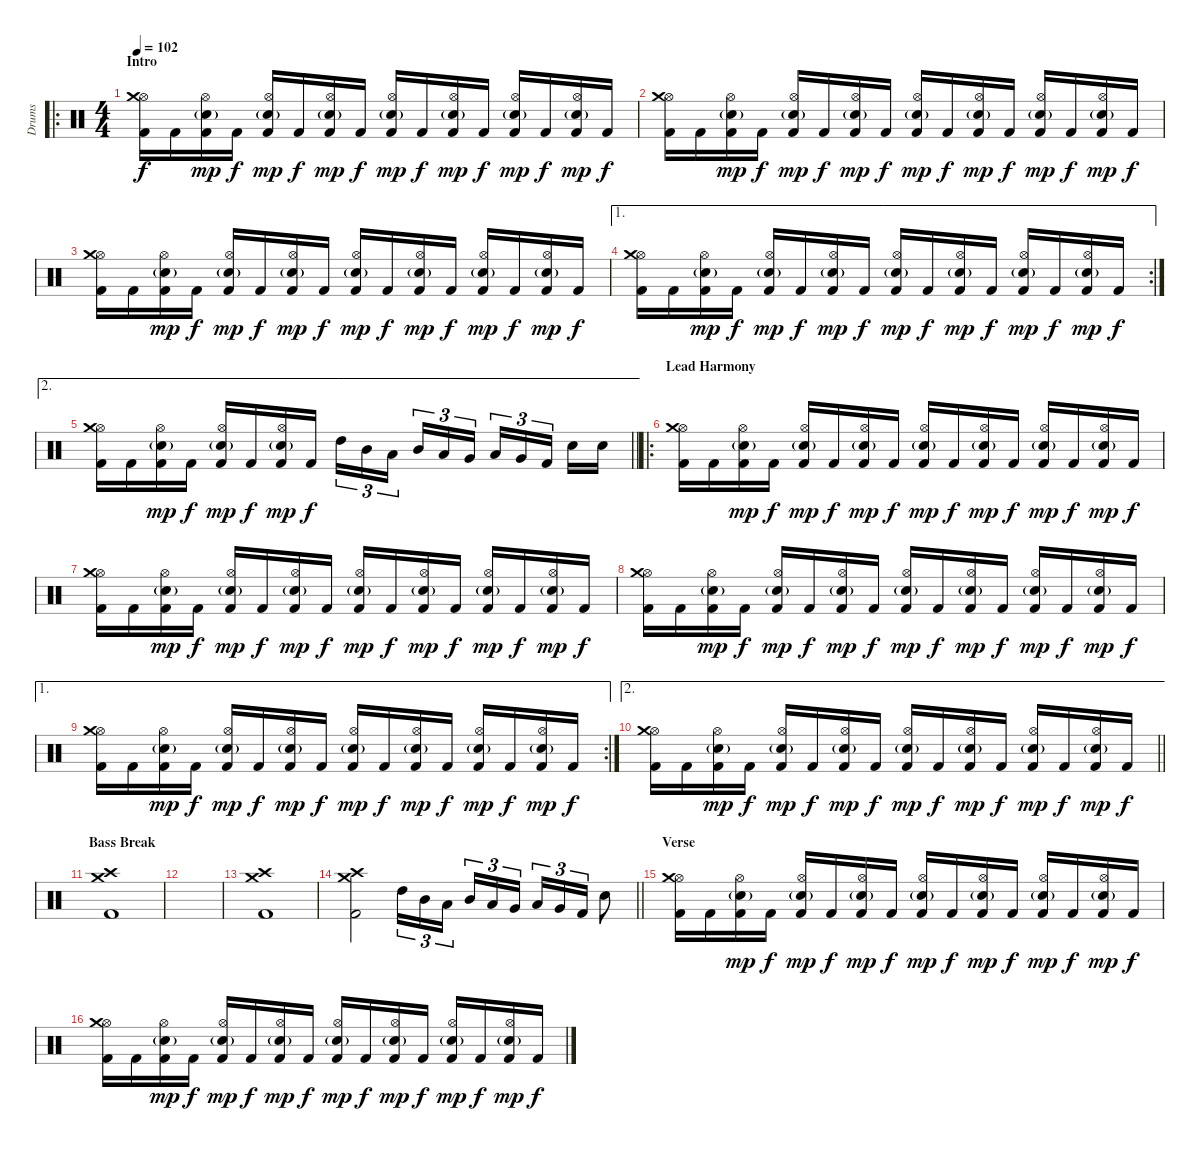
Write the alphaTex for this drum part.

\track ("Drums" "Drums") {instrument percussion}
\staff {score}
\articulation defaults
\ro
\ts (4 4)
\section ("" "Intro")
\tempo 102
\clef neutral
\ks c
("Kick (hit) 2" "Hi-Hat (open)" "Crash medium (hit)").16{dy f} "Kick (hit) 2".16 ("Kick (hit) 2" "Snare (hit) 2"{g} "Hi-Hat (open)").16{dy mp} "Kick (hit) 2".16{dy f} ("Kick (hit) 2" "Snare (hit) 2"{g} "Hi-Hat (open)").16{dy mp} "Kick (hit) 2".16{dy f} ("Kick (hit) 2" "Snare (hit) 2"{g} "Hi-Hat (open)").16{dy mp} "Kick (hit) 2".16{dy f} ("Kick (hit) 2" "Snare (hit) 2"{g} "Hi-Hat (open)").16{dy mp} "Kick (hit) 2".16{dy f} ("Kick (hit) 2" "Snare (hit) 2"{g} "Hi-Hat (open)").16{dy mp} "Kick (hit) 2".16{dy f} ("Kick (hit) 2" "Snare (hit) 2"{g} "Hi-Hat (open)").16{dy mp} "Kick (hit) 2".16{dy f} ("Kick (hit) 2" "Snare (hit) 2"{g} "Hi-Hat (open)").16{dy mp} "Kick (hit) 2".16{dy f} |
("Kick (hit) 2" "Hi-Hat (open)" "Crash medium (hit)").16 "Kick (hit) 2".16 ("Kick (hit) 2" "Snare (hit) 2"{g} "Hi-Hat (open)").16{dy mp} "Kick (hit) 2".16{dy f} ("Kick (hit) 2" "Snare (hit) 2"{g} "Hi-Hat (open)").16{dy mp} "Kick (hit) 2".16{dy f} ("Kick (hit) 2" "Snare (hit) 2"{g} "Hi-Hat (open)").16{dy mp} "Kick (hit) 2".16{dy f} ("Kick (hit) 2" "Snare (hit) 2"{g} "Hi-Hat (open)").16{dy mp} "Kick (hit) 2".16{dy f} ("Kick (hit) 2" "Snare (hit) 2"{g} "Hi-Hat (open)").16{dy mp} "Kick (hit) 2".16{dy f} ("Kick (hit) 2" "Snare (hit) 2"{g} "Hi-Hat (open)").16{dy mp} "Kick (hit) 2".16{dy f} ("Kick (hit) 2" "Snare (hit) 2"{g} "Hi-Hat (open)").16{dy mp} "Kick (hit) 2".16{dy f} |
("Kick (hit) 2" "Hi-Hat (open)" "Crash medium (hit)").16 "Kick (hit) 2".16 ("Kick (hit) 2" "Snare (hit) 2"{g} "Hi-Hat (open)").16{dy mp} "Kick (hit) 2".16{dy f} ("Kick (hit) 2" "Snare (hit) 2"{g} "Hi-Hat (open)").16{dy mp} "Kick (hit) 2".16{dy f} ("Kick (hit) 2" "Snare (hit) 2"{g} "Hi-Hat (open)").16{dy mp} "Kick (hit) 2".16{dy f} ("Kick (hit) 2" "Snare (hit) 2"{g} "Hi-Hat (open)").16{dy mp} "Kick (hit) 2".16{dy f} ("Kick (hit) 2" "Snare (hit) 2"{g} "Hi-Hat (open)").16{dy mp} "Kick (hit) 2".16{dy f} ("Kick (hit) 2" "Snare (hit) 2"{g} "Hi-Hat (open)").16{dy mp} "Kick (hit) 2".16{dy f} ("Kick (hit) 2" "Snare (hit) 2"{g} "Hi-Hat (open)").16{dy mp} "Kick (hit) 2".16{dy f} |
\ae 1
\rc 2
("Kick (hit) 2" "Hi-Hat (open)" "Crash medium (hit)").16 "Kick (hit) 2".16 ("Kick (hit) 2" "Snare (hit) 2"{g} "Hi-Hat (open)").16{dy mp} "Kick (hit) 2".16{dy f} ("Kick (hit) 2" "Snare (hit) 2"{g} "Hi-Hat (open)").16{dy mp} "Kick (hit) 2".16{dy f} ("Kick (hit) 2" "Snare (hit) 2"{g} "Hi-Hat (open)").16{dy mp} "Kick (hit) 2".16{dy f} ("Kick (hit) 2" "Snare (hit) 2"{g} "Hi-Hat (open)").16{dy mp} "Kick (hit) 2".16{dy f} ("Kick (hit) 2" "Snare (hit) 2"{g} "Hi-Hat (open)").16{dy mp} "Kick (hit) 2".16{dy f} ("Kick (hit) 2" "Snare (hit) 2"{g} "Hi-Hat (open)").16{dy mp} "Kick (hit) 2".16{dy f} ("Kick (hit) 2" "Snare (hit) 2"{g} "Hi-Hat (open)").16{dy mp} "Kick (hit) 2".16{dy f} |
\ae 2
\barLineRight lightlight
("Kick (hit) 2" "Hi-Hat (open)" "Crash medium (hit)").16 "Kick (hit) 2".16 ("Kick (hit) 2" "Snare (hit) 2"{g} "Hi-Hat (open)").16{dy mp} "Kick (hit) 2".16{dy f} ("Kick (hit) 2" "Snare (hit) 2"{g} "Hi-Hat (open)").16{dy mp} "Kick (hit) 2".16{dy f} ("Kick (hit) 2" "Snare (hit) 2"{g} "Hi-Hat (open)").16{dy mp} "Kick (hit) 2".16{dy f} "High Tom (hit)".16{tu (3 2)} "Mid Tom (hit)".16{tu (3 2)} "Low Tom (hit)".16{tu (3 2)} "Mid Tom (hit)".16{tu (3 2)} "Low Tom (hit)".16{tu (3 2)} "Very Low Tom (hit)".16{tu (3 2)} "Low Tom (hit)".16{tu (3 2)} "Very Low Tom (hit)".16{tu (3 2)} "Kick (hit) 2".16{tu (3 2)} "Snare (hit) 2".16 "Snare (hit) 2".16 |
\ro
\section ("" "Lead Harmony")
("Kick (hit) 2" "Hi-Hat (open)" "Crash medium (hit)").16 "Kick (hit) 2".16 ("Kick (hit) 2" "Snare (hit) 2"{g} "Hi-Hat (open)").16{dy mp} "Kick (hit) 2".16{dy f} ("Kick (hit) 2" "Snare (hit) 2"{g} "Hi-Hat (open)").16{dy mp} "Kick (hit) 2".16{dy f} ("Kick (hit) 2" "Snare (hit) 2"{g} "Hi-Hat (open)").16{dy mp} "Kick (hit) 2".16{dy f} ("Kick (hit) 2" "Snare (hit) 2"{g} "Hi-Hat (open)").16{dy mp} "Kick (hit) 2".16{dy f} ("Kick (hit) 2" "Snare (hit) 2"{g} "Hi-Hat (open)").16{dy mp} "Kick (hit) 2".16{dy f} ("Kick (hit) 2" "Snare (hit) 2"{g} "Hi-Hat (open)").16{dy mp} "Kick (hit) 2".16{dy f} ("Kick (hit) 2" "Snare (hit) 2"{g} "Hi-Hat (open)").16{dy mp} "Kick (hit) 2".16{dy f} |
("Kick (hit) 2" "Hi-Hat (open)" "Crash medium (hit)").16 "Kick (hit) 2".16 ("Kick (hit) 2" "Snare (hit) 2"{g} "Hi-Hat (open)").16{dy mp} "Kick (hit) 2".16{dy f} ("Kick (hit) 2" "Snare (hit) 2"{g} "Hi-Hat (open)").16{dy mp} "Kick (hit) 2".16{dy f} ("Kick (hit) 2" "Snare (hit) 2"{g} "Hi-Hat (open)").16{dy mp} "Kick (hit) 2".16{dy f} ("Kick (hit) 2" "Snare (hit) 2"{g} "Hi-Hat (open)").16{dy mp} "Kick (hit) 2".16{dy f} ("Kick (hit) 2" "Snare (hit) 2"{g} "Hi-Hat (open)").16{dy mp} "Kick (hit) 2".16{dy f} ("Kick (hit) 2" "Snare (hit) 2"{g} "Hi-Hat (open)").16{dy mp} "Kick (hit) 2".16{dy f} ("Kick (hit) 2" "Snare (hit) 2"{g} "Hi-Hat (open)").16{dy mp} "Kick (hit) 2".16{dy f} |
("Kick (hit) 2" "Hi-Hat (open)" "Crash medium (hit)").16 "Kick (hit) 2".16 ("Kick (hit) 2" "Snare (hit) 2"{g} "Hi-Hat (open)").16{dy mp} "Kick (hit) 2".16{dy f} ("Kick (hit) 2" "Snare (hit) 2"{g} "Hi-Hat (open)").16{dy mp} "Kick (hit) 2".16{dy f} ("Kick (hit) 2" "Snare (hit) 2"{g} "Hi-Hat (open)").16{dy mp} "Kick (hit) 2".16{dy f} ("Kick (hit) 2" "Snare (hit) 2"{g} "Hi-Hat (open)").16{dy mp} "Kick (hit) 2".16{dy f} ("Kick (hit) 2" "Snare (hit) 2"{g} "Hi-Hat (open)").16{dy mp} "Kick (hit) 2".16{dy f} ("Kick (hit) 2" "Snare (hit) 2"{g} "Hi-Hat (open)").16{dy mp} "Kick (hit) 2".16{dy f} ("Kick (hit) 2" "Snare (hit) 2"{g} "Hi-Hat (open)").16{dy mp} "Kick (hit) 2".16{dy f} |
\ae 1
\rc 2
("Kick (hit) 2" "Hi-Hat (open)" "Crash medium (hit)").16 "Kick (hit) 2".16 ("Kick (hit) 2" "Snare (hit) 2"{g} "Hi-Hat (open)").16{dy mp} "Kick (hit) 2".16{dy f} ("Kick (hit) 2" "Snare (hit) 2"{g} "Hi-Hat (open)").16{dy mp} "Kick (hit) 2".16{dy f} ("Kick (hit) 2" "Snare (hit) 2"{g} "Hi-Hat (open)").16{dy mp} "Kick (hit) 2".16{dy f} ("Kick (hit) 2" "Snare (hit) 2"{g} "Hi-Hat (open)").16{dy mp} "Kick (hit) 2".16{dy f} ("Kick (hit) 2" "Snare (hit) 2"{g} "Hi-Hat (open)").16{dy mp} "Kick (hit) 2".16{dy f} ("Kick (hit) 2" "Snare (hit) 2"{g} "Hi-Hat (open)").16{dy mp} "Kick (hit) 2".16{dy f} ("Kick (hit) 2" "Snare (hit) 2"{g} "Hi-Hat (open)").16{dy mp} "Kick (hit) 2".16{dy f} |
\ae 2
\barLineRight lightlight
("Kick (hit) 2" "Hi-Hat (open)" "Crash medium (hit)").16 "Kick (hit) 2".16 ("Kick (hit) 2" "Snare (hit) 2"{g} "Hi-Hat (open)").16{dy mp} "Kick (hit) 2".16{dy f} ("Kick (hit) 2" "Snare (hit) 2"{g} "Hi-Hat (open)").16{dy mp} "Kick (hit) 2".16{dy f} ("Kick (hit) 2" "Snare (hit) 2"{g} "Hi-Hat (open)").16{dy mp} "Kick (hit) 2".16{dy f} ("Kick (hit) 2" "Snare (hit) 2"{g} "Hi-Hat (open)").16{dy mp} "Kick (hit) 2".16{dy f} ("Kick (hit) 2" "Snare (hit) 2"{g} "Hi-Hat (open)").16{dy mp} "Kick (hit) 2".16{dy f} ("Kick (hit) 2" "Snare (hit) 2"{g} "Hi-Hat (open)").16{dy mp} "Kick (hit) 2".16{dy f} ("Kick (hit) 2" "Snare (hit) 2"{g} "Hi-Hat (open)").16{dy mp} "Kick (hit) 2".16{dy f} |
\section ("" "Bass Break")
("Kick (hit) 2" "Crash high (hit)" "Crash medium (hit)").1 |
|
("Kick (hit) 2" "Crash high (hit)" "Crash medium (hit)").1 |
\barLineRight lightlight
("Kick (hit) 2" "Crash high (hit)" "Crash medium (hit)").2 "High Tom (hit)".16{tu (3 2)} "Mid Tom (hit)".16{tu (3 2)} "Low Tom (hit)".16{tu (3 2)} "Mid Tom (hit)".16{tu (3 2)} "Low Tom (hit)".16{tu (3 2)} "Very Low Tom (hit)".16{tu (3 2)} "Low Tom (hit)".16{tu (3 2)} "Very Low Tom (hit)".16{tu (3 2)} "Kick (hit) 2".16{tu (3 2)} "Snare (hit) 2".8 |
\section ("" "Verse")
("Kick (hit) 2" "Hi-Hat (open)" "Crash medium (hit)").16 "Kick (hit) 2".16 ("Kick (hit) 2" "Snare (hit) 2"{g} "Hi-Hat (open)").16{dy mp} "Kick (hit) 2".16{dy f} ("Kick (hit) 2" "Snare (hit) 2"{g} "Hi-Hat (open)").16{dy mp} "Kick (hit) 2".16{dy f} ("Kick (hit) 2" "Snare (hit) 2"{g} "Hi-Hat (open)").16{dy mp} "Kick (hit) 2".16{dy f} ("Kick (hit) 2" "Snare (hit) 2"{g} "Hi-Hat (open)").16{dy mp} "Kick (hit) 2".16{dy f} ("Kick (hit) 2" "Snare (hit) 2"{g} "Hi-Hat (open)").16{dy mp} "Kick (hit) 2".16{dy f} ("Kick (hit) 2" "Snare (hit) 2"{g} "Hi-Hat (open)").16{dy mp} "Kick (hit) 2".16{dy f} ("Kick (hit) 2" "Snare (hit) 2"{g} "Hi-Hat (open)").16{dy mp} "Kick (hit) 2".16{dy f} |
("Kick (hit) 2" "Hi-Hat (open)" "Crash medium (hit)").16 "Kick (hit) 2".16 ("Kick (hit) 2" "Snare (hit) 2"{g} "Hi-Hat (open)").16{dy mp} "Kick (hit) 2".16{dy f} ("Kick (hit) 2" "Snare (hit) 2"{g} "Hi-Hat (open)").16{dy mp} "Kick (hit) 2".16{dy f} ("Kick (hit) 2" "Snare (hit) 2"{g} "Hi-Hat (open)").16{dy mp} "Kick (hit) 2".16{dy f} ("Kick (hit) 2" "Snare (hit) 2"{g} "Hi-Hat (open)").16{dy mp} "Kick (hit) 2".16{dy f} ("Kick (hit) 2" "Snare (hit) 2"{g} "Hi-Hat (open)").16{dy mp} "Kick (hit) 2".16{dy f} ("Kick (hit) 2" "Snare (hit) 2"{g} "Hi-Hat (open)").16{dy mp} "Kick (hit) 2".16{dy f} ("Kick (hit) 2" "Snare (hit) 2"{g} "Hi-Hat (open)").16{dy mp} "Kick (hit) 2".16{dy f}
